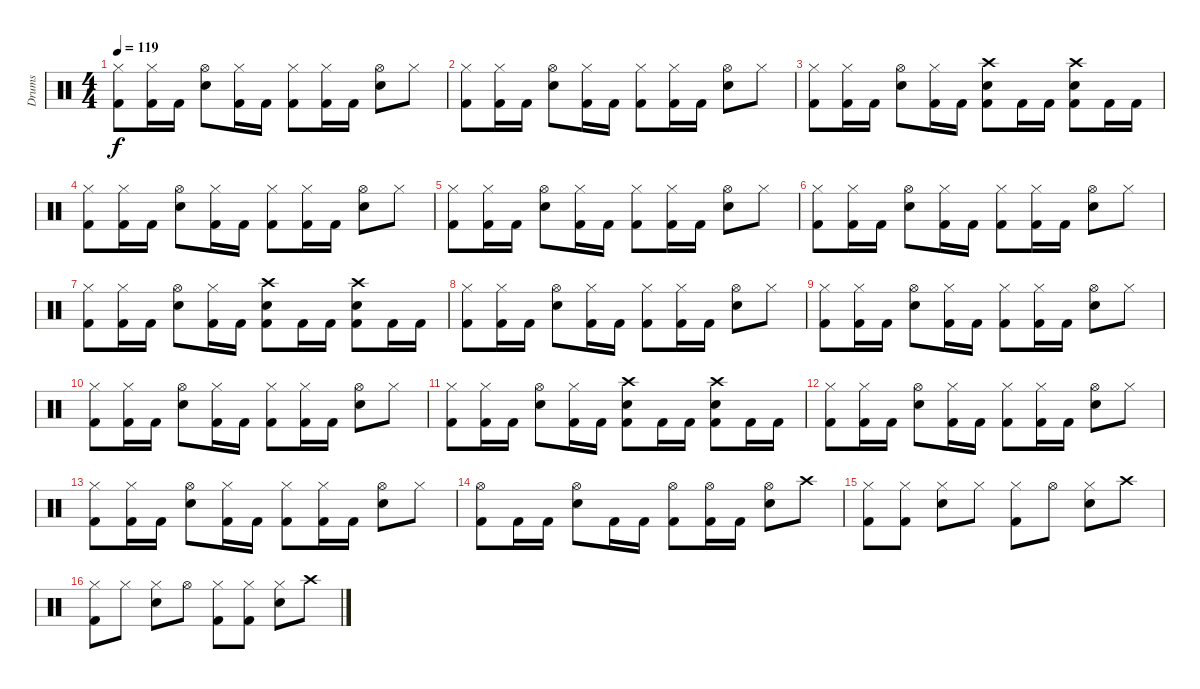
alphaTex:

\track ("Drums" "Drums") {instrument percussion}
\staff {score}
\articulation defaults
\ts (4 4)
\tempo 119
\clef neutral
\ks c
("Hi-Hat (closed)" "Kick (hit) 2").8{dy f} ("Hi-Hat (closed)" "Kick (hit) 2").16 "Kick (hit) 2".16 ("Hi-Hat (open)" "Snare (hit) 2").8 ("Hi-Hat (closed)" "Kick (hit) 2").16 "Kick (hit) 2".16 ("Hi-Hat (closed)" "Kick (hit) 2").8 ("Hi-Hat (closed)" "Kick (hit) 2").16 "Kick (hit) 2".16 ("Hi-Hat (open)" "Snare (hit) 2").8 "Hi-Hat (closed)".8 |
("Hi-Hat (closed)" "Kick (hit) 2").8 ("Hi-Hat (closed)" "Kick (hit) 2").16 "Kick (hit) 2".16 ("Hi-Hat (open)" "Snare (hit) 2").8 ("Hi-Hat (closed)" "Kick (hit) 2").16 "Kick (hit) 2".16 ("Hi-Hat (closed)" "Kick (hit) 2").8 ("Hi-Hat (closed)" "Kick (hit) 2").16 "Kick (hit) 2".16 ("Hi-Hat (open)" "Snare (hit) 2").8 "Hi-Hat (closed)".8 |
("Hi-Hat (closed)" "Kick (hit) 2").8 ("Hi-Hat (closed)" "Kick (hit) 2").16 "Kick (hit) 2".16 ("Hi-Hat (open)" "Snare (hit) 2").8 ("Hi-Hat (closed)" "Kick (hit) 2").16 "Kick (hit) 2".16 ("Crash high (hit)" "Kick (hit) 2" "Snare (hit) 2").8 "Kick (hit) 2".16 "Kick (hit) 2".16 ("Crash high (hit)" "Kick (hit) 2" "Snare (hit) 2").8 "Kick (hit) 2".16 "Kick (hit) 2".16 |
("Hi-Hat (closed)" "Kick (hit) 2").8 ("Hi-Hat (closed)" "Kick (hit) 2").16 "Kick (hit) 2".16 ("Hi-Hat (open)" "Snare (hit) 2").8 ("Hi-Hat (closed)" "Kick (hit) 2").16 "Kick (hit) 2".16 ("Hi-Hat (closed)" "Kick (hit) 2").8 ("Hi-Hat (closed)" "Kick (hit) 2").16 "Kick (hit) 2".16 ("Hi-Hat (open)" "Snare (hit) 2").8 "Hi-Hat (closed)".8 |
("Hi-Hat (closed)" "Kick (hit) 2").8 ("Hi-Hat (closed)" "Kick (hit) 2").16 "Kick (hit) 2".16 ("Hi-Hat (open)" "Snare (hit) 2").8 ("Hi-Hat (closed)" "Kick (hit) 2").16 "Kick (hit) 2".16 ("Hi-Hat (closed)" "Kick (hit) 2").8 ("Hi-Hat (closed)" "Kick (hit) 2").16 "Kick (hit) 2".16 ("Hi-Hat (open)" "Snare (hit) 2").8 "Hi-Hat (closed)".8 |
("Hi-Hat (closed)" "Kick (hit) 2").8 ("Hi-Hat (closed)" "Kick (hit) 2").16 "Kick (hit) 2".16 ("Hi-Hat (open)" "Snare (hit) 2").8 ("Hi-Hat (closed)" "Kick (hit) 2").16 "Kick (hit) 2".16 ("Hi-Hat (closed)" "Kick (hit) 2").8 ("Hi-Hat (closed)" "Kick (hit) 2").16 "Kick (hit) 2".16 ("Hi-Hat (open)" "Snare (hit) 2").8 "Hi-Hat (closed)".8 |
("Hi-Hat (closed)" "Kick (hit) 2").8 ("Hi-Hat (closed)" "Kick (hit) 2").16 "Kick (hit) 2".16 ("Hi-Hat (open)" "Snare (hit) 2").8 ("Hi-Hat (closed)" "Kick (hit) 2").16 "Kick (hit) 2".16 ("Crash high (hit)" "Kick (hit) 2" "Snare (hit) 2").8 "Kick (hit) 2".16 "Kick (hit) 2".16 ("Crash high (hit)" "Kick (hit) 2" "Snare (hit) 2").8 "Kick (hit) 2".16 "Kick (hit) 2".16 |
("Hi-Hat (closed)" "Kick (hit) 2").8 ("Hi-Hat (closed)" "Kick (hit) 2").16 "Kick (hit) 2".16 ("Hi-Hat (open)" "Snare (hit) 2").8 ("Hi-Hat (closed)" "Kick (hit) 2").16 "Kick (hit) 2".16 ("Hi-Hat (closed)" "Kick (hit) 2").8 ("Hi-Hat (closed)" "Kick (hit) 2").16 "Kick (hit) 2".16 ("Hi-Hat (open)" "Snare (hit) 2").8 "Hi-Hat (closed)".8 |
("Hi-Hat (closed)" "Kick (hit) 2").8 ("Hi-Hat (closed)" "Kick (hit) 2").16 "Kick (hit) 2".16 ("Hi-Hat (open)" "Snare (hit) 2").8 ("Hi-Hat (closed)" "Kick (hit) 2").16 "Kick (hit) 2".16 ("Hi-Hat (closed)" "Kick (hit) 2").8 ("Hi-Hat (closed)" "Kick (hit) 2").16 "Kick (hit) 2".16 ("Hi-Hat (open)" "Snare (hit) 2").8 "Hi-Hat (closed)".8 |
("Hi-Hat (closed)" "Kick (hit) 2").8 ("Hi-Hat (closed)" "Kick (hit) 2").16 "Kick (hit) 2".16 ("Hi-Hat (open)" "Snare (hit) 2").8 ("Hi-Hat (closed)" "Kick (hit) 2").16 "Kick (hit) 2".16 ("Hi-Hat (closed)" "Kick (hit) 2").8 ("Hi-Hat (closed)" "Kick (hit) 2").16 "Kick (hit) 2".16 ("Hi-Hat (open)" "Snare (hit) 2").8 "Hi-Hat (closed)".8 |
("Hi-Hat (closed)" "Kick (hit) 2").8 ("Hi-Hat (closed)" "Kick (hit) 2").16 "Kick (hit) 2".16 ("Hi-Hat (open)" "Snare (hit) 2").8 ("Hi-Hat (closed)" "Kick (hit) 2").16 "Kick (hit) 2".16 ("Crash high (hit)" "Kick (hit) 2" "Snare (hit) 2").8 "Kick (hit) 2".16 "Kick (hit) 2".16 ("Crash high (hit)" "Kick (hit) 2" "Snare (hit) 2").8 "Kick (hit) 2".16 "Kick (hit) 2".16 |
("Hi-Hat (closed)" "Kick (hit) 2").8 ("Hi-Hat (closed)" "Kick (hit) 2").16 "Kick (hit) 2".16 ("Hi-Hat (open)" "Snare (hit) 2").8 ("Hi-Hat (closed)" "Kick (hit) 2").16 "Kick (hit) 2".16 ("Hi-Hat (closed)" "Kick (hit) 2").8 ("Hi-Hat (closed)" "Kick (hit) 2").16 "Kick (hit) 2".16 ("Hi-Hat (open)" "Snare (hit) 2").8 "Hi-Hat (closed)".8 |
("Hi-Hat (closed)" "Kick (hit) 2").8 ("Hi-Hat (closed)" "Kick (hit) 2").16 "Kick (hit) 2".16 ("Hi-Hat (open)" "Snare (hit) 2").8 ("Hi-Hat (closed)" "Kick (hit) 2").16 "Kick (hit) 2".16 ("Hi-Hat (closed)" "Kick (hit) 2").8 ("Hi-Hat (closed)" "Kick (hit) 2").16 "Kick (hit) 2".16 ("Hi-Hat (open)" "Snare (hit) 2").8 "Hi-Hat (closed)".8 |
("Hi-Hat (open)" "Kick (hit) 2").8 "Kick (hit) 2".16 "Kick (hit) 2".16 ("Hi-Hat (open)" "Snare (hit) 2").8 "Kick (hit) 2".16 "Kick (hit) 2".16 ("Hi-Hat (open)" "Kick (hit) 2").8 ("Hi-Hat (open)" "Kick (hit) 2").16 "Kick (hit) 2".16 ("Hi-Hat (open)" "Snare (hit) 2").8 "Crash high (hit)".8 |
("Hi-Hat (closed)" "Kick (hit) 2").8 ("Hi-Hat (closed)" "Kick (hit) 2").8 ("Hi-Hat (closed)" "Snare (hit) 2").8 "Hi-Hat (closed)".8 ("Hi-Hat (closed)" "Kick (hit) 2").8 "Hi-Hat (open)".8 ("Hi-Hat (closed)" "Snare (hit) 2").8 "Crash high (hit)".8 |
("Hi-Hat (closed)" "Kick (hit) 2").8 "Hi-Hat (closed)".8 ("Hi-Hat (closed)" "Snare (hit) 2").8 "Hi-Hat (open)".8 ("Hi-Hat (closed)" "Kick (hit) 2").8 ("Hi-Hat (closed)" "Kick (hit) 2").8 ("Hi-Hat (closed)" "Snare (hit) 2").8 "Crash high (hit)".8
